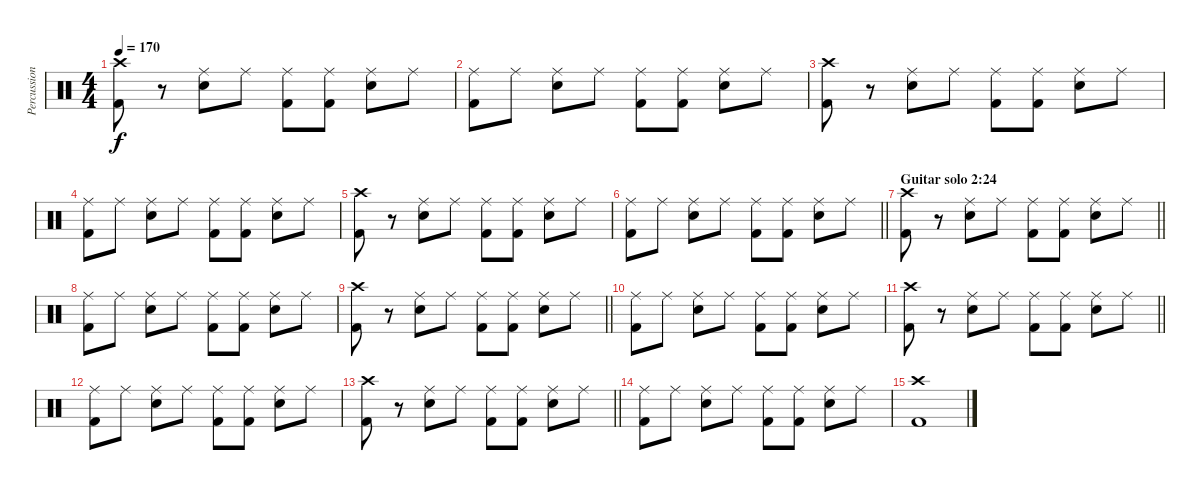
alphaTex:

\track ("Percussion" "Percussion") {instrument percussion}
\staff {score}
\articulation defaults
\ts (4 4)
\tempo 170
\clef neutral
\ks c
("Crash high (hit)" "Kick (hit) 2").8{dy f} r.8 ("Ride (middle)" "Snare (hit) 2").8 "Ride (middle)".8 ("Ride (middle)" "Kick (hit) 2").8 ("Ride (middle)" "Kick (hit) 2").8 ("Ride (middle)" "Snare (hit) 2").8 "Ride (middle)".8 |
("Ride (middle)" "Kick (hit) 2").8 "Ride (middle)".8 ("Ride (middle)" "Snare (hit) 2").8 "Ride (middle)".8 ("Ride (middle)" "Kick (hit) 2").8 ("Ride (middle)" "Kick (hit) 2").8 ("Ride (middle)" "Snare (hit) 2").8 "Ride (middle)".8 |
("Crash high (hit)" "Kick (hit) 2").8 r.8 ("Ride (middle)" "Snare (hit) 2").8 "Ride (middle)".8 ("Ride (middle)" "Kick (hit) 2").8 ("Ride (middle)" "Kick (hit) 2").8 ("Ride (middle)" "Snare (hit) 2").8 "Ride (middle)".8 |
("Ride (middle)" "Kick (hit) 2").8 "Ride (middle)".8 ("Ride (middle)" "Snare (hit) 2").8 "Ride (middle)".8 ("Ride (middle)" "Kick (hit) 2").8 ("Ride (middle)" "Kick (hit) 2").8 ("Ride (middle)" "Snare (hit) 2").8 "Ride (middle)".8 |
("Crash high (hit)" "Kick (hit) 2").8 r.8 ("Ride (middle)" "Snare (hit) 2").8 "Ride (middle)".8 ("Ride (middle)" "Kick (hit) 2").8 ("Ride (middle)" "Kick (hit) 2").8 ("Ride (middle)" "Snare (hit) 2").8 "Ride (middle)".8 |
\barLineRight lightlight
("Ride (middle)" "Kick (hit) 2").8 "Ride (middle)".8 ("Ride (middle)" "Snare (hit) 2").8 "Ride (middle)".8 ("Ride (middle)" "Kick (hit) 2").8 ("Ride (middle)" "Kick (hit) 2").8 ("Ride (middle)" "Snare (hit) 2").8 "Ride (middle)".8 |
\section ("" "Guitar solo 2:24")
\barLineRight lightlight
("Crash high (hit)" "Kick (hit) 2").8 r.8 ("Ride (middle)" "Snare (hit) 2").8 "Ride (middle)".8 ("Ride (middle)" "Kick (hit) 2").8 ("Ride (middle)" "Kick (hit) 2").8 ("Ride (middle)" "Snare (hit) 2").8 "Ride (middle)".8 |
("Ride (middle)" "Kick (hit) 2").8 "Ride (middle)".8 ("Ride (middle)" "Snare (hit) 2").8 "Ride (middle)".8 ("Ride (middle)" "Kick (hit) 2").8 ("Ride (middle)" "Kick (hit) 2").8 ("Ride (middle)" "Snare (hit) 2").8 "Ride (middle)".8 |
\barLineRight lightlight
("Crash high (hit)" "Kick (hit) 2").8 r.8 ("Ride (middle)" "Snare (hit) 2").8 "Ride (middle)".8 ("Ride (middle)" "Kick (hit) 2").8 ("Ride (middle)" "Kick (hit) 2").8 ("Ride (middle)" "Snare (hit) 2").8 "Ride (middle)".8 |
("Ride (middle)" "Kick (hit) 2").8 "Ride (middle)".8 ("Ride (middle)" "Snare (hit) 2").8 "Ride (middle)".8 ("Ride (middle)" "Kick (hit) 2").8 ("Ride (middle)" "Kick (hit) 2").8 ("Ride (middle)" "Snare (hit) 2").8 "Ride (middle)".8 |
\barLineRight lightlight
("Crash high (hit)" "Kick (hit) 2").8 r.8 ("Ride (middle)" "Snare (hit) 2").8 "Ride (middle)".8 ("Ride (middle)" "Kick (hit) 2").8 ("Ride (middle)" "Kick (hit) 2").8 ("Ride (middle)" "Snare (hit) 2").8 "Ride (middle)".8 |
("Ride (middle)" "Kick (hit) 2").8 "Ride (middle)".8 ("Ride (middle)" "Snare (hit) 2").8 "Ride (middle)".8 ("Ride (middle)" "Kick (hit) 2").8 ("Ride (middle)" "Kick (hit) 2").8 ("Ride (middle)" "Snare (hit) 2").8 "Ride (middle)".8 |
\barLineRight lightlight
("Crash high (hit)" "Kick (hit) 2").8 r.8 ("Ride (middle)" "Snare (hit) 2").8 "Ride (middle)".8 ("Ride (middle)" "Kick (hit) 2").8 ("Ride (middle)" "Kick (hit) 2").8 ("Ride (middle)" "Snare (hit) 2").8 "Ride (middle)".8 |
("Ride (middle)" "Kick (hit) 2").8 "Ride (middle)".8 ("Ride (middle)" "Snare (hit) 2").8 "Ride (middle)".8 ("Ride (middle)" "Kick (hit) 2").8 ("Ride (middle)" "Kick (hit) 2").8 ("Ride (middle)" "Snare (hit) 2").8 "Ride (middle)".8 |
("Crash high (hit)" "Kick (hit) 2").1
